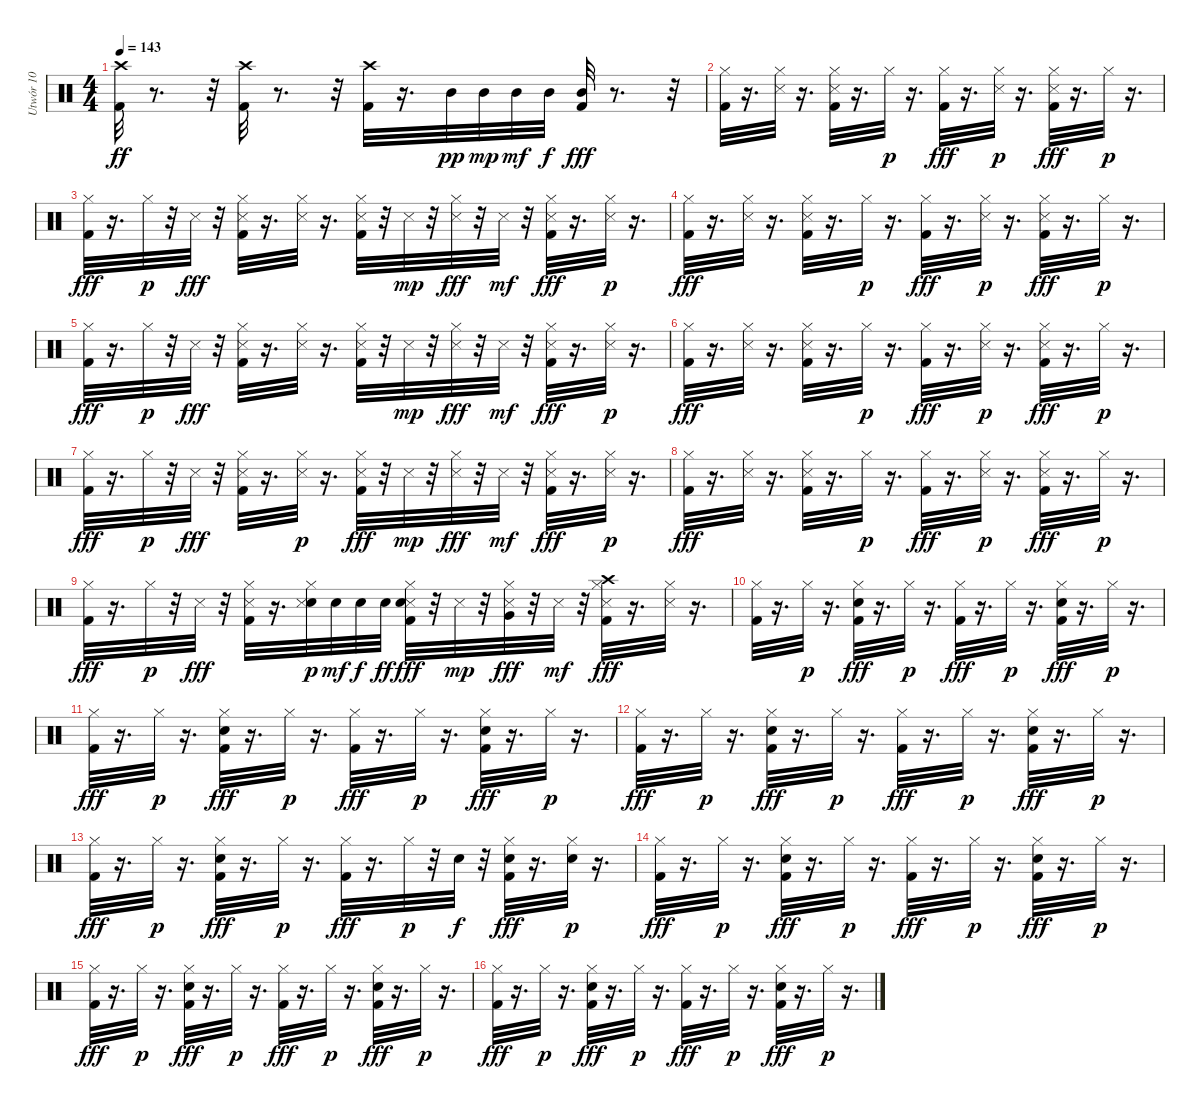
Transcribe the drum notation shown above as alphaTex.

\track ("Utwór 10" "Utwór 10") {instrument percussion}
\staff {score}
\articulation defaults
\ts (4 4)
\tempo 143
\clef neutral
\ks c
("Kick (hit) 2" "Crash high (hit)").32{dy ff} r.8{d} r.32 ("Kick (hit) 2" "Crash high (hit)").32 r.8{d} r.32 ("Kick (hit) 2" "Crash high (hit)").32 r.16{d} "Mid Tom (hit)".32{dy pp} "Mid Tom (hit)".32{dy mp} "Mid Tom (hit)".32{dy mf} "Mid Tom (hit)".32{dy f} ("Kick (hit) 2" "Mid Tom (hit)").32{dy fff} r.8{d} r.32 |
("Kick (hit) 2" "Hi-Hat (closed)").32 r.16{d} ("Hi-Hat (closed)" "Snare (side stick) 3").32 r.16{d} ("Snare (side stick) 3" "Hi-Hat (closed)" "Kick (hit) 2").32 r.16{d} "Hi-Hat (closed)".32{dy p} r.16{d} ("Hi-Hat (closed)" "Kick (hit) 2").32{dy fff} r.16{d} ("Snare (side stick) 3" "Hi-Hat (closed)").32{dy p} r.16{d} ("Kick (hit) 2" "Snare (side stick) 3" "Hi-Hat (closed)").32{dy fff} r.16{d} "Hi-Hat (closed)".32{dy p} r.16{d} |
("Hi-Hat (closed)" "Kick (hit) 2").32{dy fff} r.16{d} "Hi-Hat (closed)".32{dy p} r.32 "Snare (side stick) 3".32{dy fff} r.32 ("Kick (hit) 2" "Hi-Hat (closed)" "Snare (side stick) 3").32 r.16{d} ("Hi-Hat (closed)" "Snare (side stick) 3").32 r.16{d} ("Snare (side stick) 3" "Hi-Hat (closed)" "Kick (hit) 2").32 r.32 "Snare (side stick) 3".32{dy mp} r.32 ("Hi-Hat (closed)" "Snare (side stick) 3").32{dy fff} r.32 "Snare (side stick) 3".32{dy mf} r.32 ("Snare (side stick) 3" "Hi-Hat (closed)" "Kick (hit) 2").32{dy fff} r.16{d} ("Snare (side stick) 3" "Hi-Hat (closed)").32{dy p} r.16{d} |
("Kick (hit) 2" "Hi-Hat (closed)").32{dy fff} r.16{d} ("Hi-Hat (closed)" "Snare (side stick) 3").32 r.16{d} ("Kick (hit) 2" "Hi-Hat (closed)" "Snare (side stick) 3").32 r.16{d} "Hi-Hat (closed)".32{dy p} r.16{d} ("Hi-Hat (closed)" "Kick (hit) 2").32{dy fff} r.16{d} ("Snare (side stick) 3" "Hi-Hat (closed)").32{dy p} r.16{d} ("Kick (hit) 2" "Snare (side stick) 3" "Hi-Hat (closed)").32{dy fff} r.16{d} "Hi-Hat (closed)".32{dy p} r.16{d} |
("Hi-Hat (closed)" "Kick (hit) 2").32{dy fff} r.16{d} "Hi-Hat (closed)".32{dy p} r.32 "Snare (side stick) 3".32{dy fff} r.32 ("Snare (side stick) 3" "Hi-Hat (closed)" "Kick (hit) 2").32 r.16{d} ("Hi-Hat (closed)" "Snare (side stick) 3").32 r.16{d} ("Kick (hit) 2" "Snare (side stick) 3" "Hi-Hat (closed)").32 r.32 "Snare (side stick) 3".32{dy mp} r.32 ("Hi-Hat (closed)" "Snare (side stick) 3").32{dy fff} r.32 "Snare (side stick) 3".32{dy mf} r.32 ("Kick (hit) 2" "Snare (side stick) 3" "Hi-Hat (closed)").32{dy fff} r.16{d} ("Snare (side stick) 3" "Hi-Hat (closed)").32{dy p} r.16{d} |
("Kick (hit) 2" "Hi-Hat (closed)").32{dy fff} r.16{d} ("Hi-Hat (closed)" "Snare (side stick) 3").32 r.16{d} ("Hi-Hat (closed)" "Snare (side stick) 3" "Kick (hit) 2").32 r.16{d} "Hi-Hat (closed)".32{dy p} r.16{d} ("Hi-Hat (closed)" "Kick (hit) 2").32{dy fff} r.16{d} ("Snare (side stick) 3" "Hi-Hat (closed)").32{dy p} r.16{d} ("Hi-Hat (closed)" "Snare (side stick) 3" "Kick (hit) 2").32{dy fff} r.16{d} "Hi-Hat (closed)".32{dy p} r.16{d} |
("Kick (hit) 2" "Hi-Hat (closed)").32{dy fff} r.16{d} "Hi-Hat (closed)".32{dy p} r.32 "Snare (side stick) 3".32{dy fff} r.32 ("Snare (side stick) 3" "Kick (hit) 2" "Hi-Hat (closed)").32 r.16{d} ("Snare (side stick) 3" "Hi-Hat (closed)").32{dy p} r.16{d} ("Hi-Hat (closed)" "Snare (side stick) 3" "Kick (hit) 2").32{dy fff} r.32 "Snare (side stick) 3".32{dy mp} r.32 ("Hi-Hat (closed)" "Snare (side stick) 3").32{dy fff} r.32 "Snare (side stick) 3".32{dy mf} r.32 ("Kick (hit) 2" "Hi-Hat (closed)" "Snare (side stick) 3").32{dy fff} r.16{d} ("Snare (side stick) 3" "Hi-Hat (closed)").32{dy p} r.16{d} |
("Kick (hit) 2" "Hi-Hat (closed)").32{dy fff} r.16{d} ("Hi-Hat (closed)" "Snare (side stick) 3").32 r.16{d} ("Kick (hit) 2" "Snare (side stick) 3" "Hi-Hat (closed)").32 r.16{d} "Hi-Hat (closed)".32{dy p} r.16{d} ("Kick (hit) 2" "Hi-Hat (closed)").32{dy fff} r.16{d} ("Snare (side stick) 3" "Hi-Hat (closed)").32{dy p} r.16{d} ("Snare (side stick) 3" "Hi-Hat (closed)" "Kick (hit) 2").32{dy fff} r.16{d} "Hi-Hat (closed)".32{dy p} r.16{d} |
("Hi-Hat (closed)" "Kick (hit) 2").32{dy fff} r.16{d} "Hi-Hat (closed)".32{dy p} r.32 "Snare (side stick) 3".32{dy fff} r.32 ("Hi-Hat (closed)" "Snare (side stick) 3" "Kick (hit) 2").32 r.16{d} ("Electric Snare (hit)" "Snare (side stick) 3" "Hi-Hat (closed)").32{dy p} "Electric Snare (hit)".32{dy mf} "Electric Snare (hit)".32{dy f} "Electric Snare (hit)".32{dy ff} ("Hi-Hat (closed)" "Snare (side stick) 3" "Electric Snare (hit)" "Kick (hit) 2").32{dy fff} r.32 "Snare (side stick) 3".32{dy mp} r.32 ("Very Low Tom (hit)" "Hi-Hat (closed)" "Snare (side stick) 3").32{dy fff} r.32 "Snare (side stick) 3".32{dy mf} r.32 ("Crash high (hit)" "Hi-Hat (closed)" "Kick (hit) 2" "Snare (side stick) 3").32{dy fff} r.16{d} ("Hi-Hat (closed)" "Snare (side stick) 3").32 r.16{d} |
("Kick (hit) 2" "Hi-Hat (closed)").32 r.16{d} "Hi-Hat (closed)".32{dy p} r.16{d} ("Kick (hit) 2" "Electric Snare (hit)" "Hi-Hat (closed)").32{dy fff} r.16{d} "Hi-Hat (closed)".32{dy p} r.16{d} ("Hi-Hat (closed)" "Kick (hit) 2").32{dy fff} r.16{d} "Hi-Hat (closed)".32{dy p} r.16{d} ("Hi-Hat (closed)" "Electric Snare (hit)" "Kick (hit) 2").32{dy fff} r.16{d} "Hi-Hat (closed)".32{dy p} r.16{d} |
("Kick (hit) 2" "Hi-Hat (closed)").32{dy fff} r.16{d} "Hi-Hat (closed)".32{dy p} r.16{d} ("Hi-Hat (closed)" "Kick (hit) 2" "Electric Snare (hit)").32{dy fff} r.16{d} "Hi-Hat (closed)".32{dy p} r.16{d} ("Hi-Hat (closed)" "Kick (hit) 2").32{dy fff} r.16{d} "Hi-Hat (closed)".32{dy p} r.16{d} ("Hi-Hat (closed)" "Kick (hit) 2" "Electric Snare (hit)").32{dy fff} r.16{d} "Hi-Hat (closed)".32{dy p} r.16{d} |
("Kick (hit) 2" "Hi-Hat (closed)").32{dy fff} r.16{d} "Hi-Hat (closed)".32{dy p} r.16{d} ("Hi-Hat (closed)" "Kick (hit) 2" "Electric Snare (hit)").32{dy fff} r.16{d} "Hi-Hat (closed)".32{dy p} r.16{d} ("Hi-Hat (closed)" "Kick (hit) 2").32{dy fff} r.16{d} "Hi-Hat (closed)".32{dy p} r.16{d} ("Hi-Hat (closed)" "Electric Snare (hit)" "Kick (hit) 2").32{dy fff} r.16{d} "Hi-Hat (closed)".32{dy p} r.16{d} |
("Kick (hit) 2" "Hi-Hat (closed)").32{dy fff} r.16{d} "Hi-Hat (closed)".32{dy p} r.16{d} ("Hi-Hat (closed)" "Electric Snare (hit)" "Kick (hit) 2").32{dy fff} r.16{d} "Hi-Hat (closed)".32{dy p} r.16{d} ("Hi-Hat (closed)" "Kick (hit) 2").32{dy fff} r.16{d} "Hi-Hat (closed)".32{dy p} r.32 "Electric Snare (hit)".32{dy f} r.32 ("Hi-Hat (closed)" "Electric Snare (hit)" "Kick (hit) 2").32{dy fff} r.16{d} ("Electric Snare (hit)" "Hi-Hat (closed)").32{dy p} r.16{d} |
("Kick (hit) 2" "Hi-Hat (closed)").32{dy fff} r.16{d} "Hi-Hat (closed)".32{dy p} r.16{d} ("Hi-Hat (closed)" "Kick (hit) 2" "Electric Snare (hit)").32{dy fff} r.16{d} "Hi-Hat (closed)".32{dy p} r.16{d} ("Kick (hit) 2" "Hi-Hat (closed)").32{dy fff} r.16{d} "Hi-Hat (closed)".32{dy p} r.16{d} ("Electric Snare (hit)" "Kick (hit) 2" "Hi-Hat (closed)").32{dy fff} r.16{d} "Hi-Hat (closed)".32{dy p} r.16{d} |
("Kick (hit) 2" "Hi-Hat (closed)").32{dy fff} r.16{d} "Hi-Hat (closed)".32{dy p} r.16{d} ("Electric Snare (hit)" "Kick (hit) 2" "Hi-Hat (closed)").32{dy fff} r.16{d} "Hi-Hat (closed)".32{dy p} r.16{d} ("Kick (hit) 2" "Hi-Hat (closed)").32{dy fff} r.16{d} "Hi-Hat (closed)".32{dy p} r.16{d} ("Kick (hit) 2" "Electric Snare (hit)" "Hi-Hat (closed)").32{dy fff} r.16{d} "Hi-Hat (closed)".32{dy p} r.16{d} |
("Hi-Hat (closed)" "Kick (hit) 2").32{dy fff} r.16{d} "Hi-Hat (closed)".32{dy p} r.16{d} ("Hi-Hat (closed)" "Electric Snare (hit)" "Kick (hit) 2").32{dy fff} r.16{d} "Hi-Hat (closed)".32{dy p} r.16{d} ("Kick (hit) 2" "Hi-Hat (closed)").32{dy fff} r.16{d} "Hi-Hat (closed)".32{dy p} r.16{d} ("Electric Snare (hit)" "Hi-Hat (closed)" "Kick (hit) 2").32{dy fff} r.16{d} "Hi-Hat (closed)".32{dy p} r.16{d}
